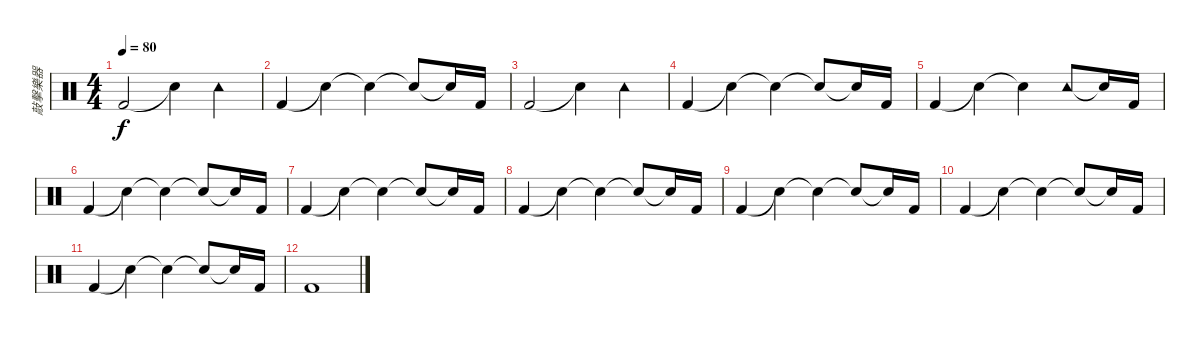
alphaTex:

\track ("敲擊樂器" "敲擊樂器") {instrument percussion}
\staff {score}
\articulation defaults
\ts (4 4)
\tempo 80
\clef neutral
\ks c "Kick (hit) 2".2{dy f} "Snare (hit)"{t}.4 "Tambourine (hit)".4
|
"Kick (hit) 2".4 "Snare (hit)"{t}.4 "Snare (hit)"{t}.4 "Snare (hit)"{t}.8 "Snare (hit)"{t}.16 "Kick (hit) 2".16 |
"Kick (hit) 2".2 "Snare (hit)"{t}.4 "Tambourine (hit)".4 |
"Kick (hit) 2".4 "Snare (hit)"{t}.4 "Snare (hit)"{t}.4 "Snare (hit)"{t}.8 "Snare (hit)"{t}.16 "Kick (hit) 2".16 |
"Kick (hit) 2".4 "Snare (hit)"{t}.4 "Snare (hit)"{t}.4 "Tambourine (hit)".8 "Snare (hit)"{t}.16 "Kick (hit) 2".16 |
"Kick (hit) 2".4 "Snare (hit)"{t}.4 "Snare (hit)"{t}.4 "Snare (hit)"{t}.8 "Snare (hit)"{t}.16 "Kick (hit) 2".16 |
"Kick (hit) 2".4 "Snare (hit)"{t}.4 "Snare (hit)"{t}.4 "Snare (hit)"{t}.8 "Snare (hit)"{t}.16 "Kick (hit) 2".16 |
"Kick (hit) 2".4 "Snare (hit)"{t}.4 "Snare (hit)"{t}.4 "Snare (hit)"{t}.8 "Snare (hit)"{t}.16 "Kick (hit) 2".16 |
"Kick (hit) 2".4 "Snare (hit)"{t}.4 "Snare (hit)"{t}.4 "Snare (hit)"{t}.8 "Snare (hit)"{t}.16 "Kick (hit) 2".16 |
"Kick (hit) 2".4 "Snare (hit)"{t}.4 "Snare (hit)"{t}.4 "Snare (hit)"{t}.8 "Snare (hit)"{t}.16 "Kick (hit) 2".16 |
"Kick (hit) 2".4 "Snare (hit)"{t}.4 "Snare (hit)"{t}.4 "Snare (hit)"{t}.8 "Snare (hit)"{t}.16 "Kick (hit) 2".16 |
"Kick (hit) 2".1
